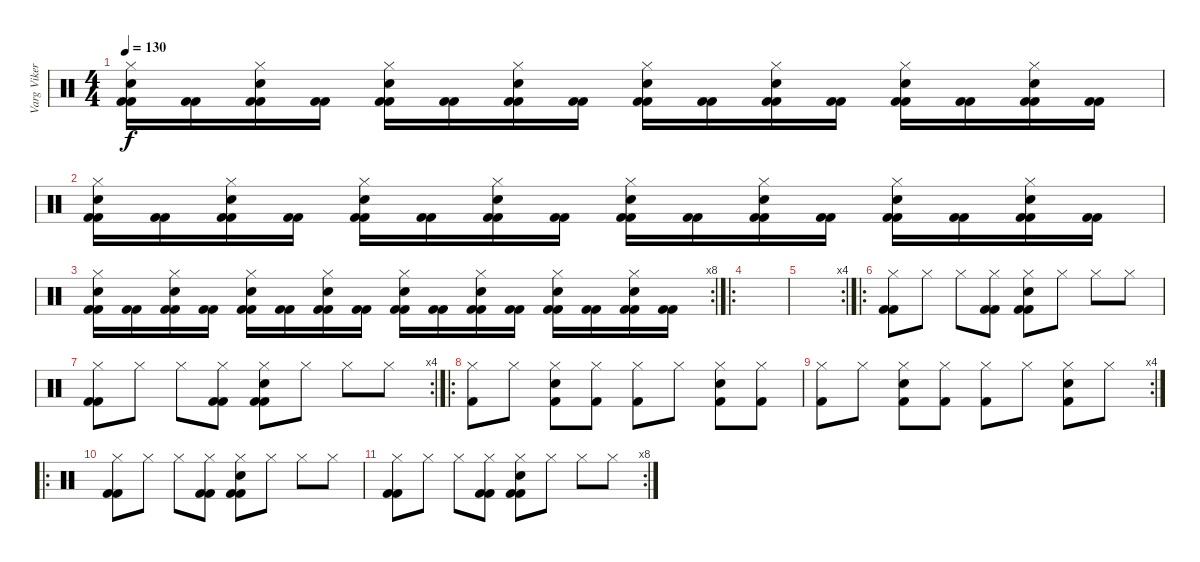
\track ("Varg Vikernes (Drums)" "Varg Viker") {instrument percussion}
\staff {score}
\articulation defaults
\ts (4 4)
\tempo 130
\clef neutral
\ks c
("Kick (hit) 2" "Kick (hit) 2" "Electric Snare (hit)" "Hi-Hat (closed)").16{dy f} ("Kick (hit) 2" "Kick (hit) 2").16 ("Kick (hit) 2" "Kick (hit) 2" "Electric Snare (hit)" "Hi-Hat (closed)").16 ("Kick (hit) 2" "Kick (hit) 2").16 ("Kick (hit) 2" "Kick (hit) 2" "Electric Snare (hit)" "Hi-Hat (closed)").16 ("Kick (hit) 2" "Kick (hit) 2").16 ("Kick (hit) 2" "Kick (hit) 2" "Electric Snare (hit)" "Hi-Hat (closed)").16 ("Kick (hit) 2" "Kick (hit) 2").16 ("Kick (hit) 2" "Kick (hit) 2" "Electric Snare (hit)" "Hi-Hat (closed)").16 ("Kick (hit) 2" "Kick (hit) 2").16 ("Kick (hit) 2" "Kick (hit) 2" "Electric Snare (hit)" "Hi-Hat (closed)").16 ("Kick (hit) 2" "Kick (hit) 2").16 ("Kick (hit) 2" "Kick (hit) 2" "Electric Snare (hit)" "Hi-Hat (closed)").16 ("Kick (hit) 2" "Kick (hit) 2").16 ("Kick (hit) 2" "Kick (hit) 2" "Electric Snare (hit)" "Hi-Hat (closed)").16 ("Kick (hit) 2" "Kick (hit) 2").16 |
("Kick (hit) 2" "Kick (hit) 2" "Electric Snare (hit)" "Hi-Hat (closed)").16 ("Kick (hit) 2" "Kick (hit) 2").16 ("Kick (hit) 2" "Kick (hit) 2" "Electric Snare (hit)" "Hi-Hat (closed)").16 ("Kick (hit) 2" "Kick (hit) 2").16 ("Kick (hit) 2" "Kick (hit) 2" "Electric Snare (hit)" "Hi-Hat (closed)").16 ("Kick (hit) 2" "Kick (hit) 2").16 ("Kick (hit) 2" "Kick (hit) 2" "Electric Snare (hit)" "Hi-Hat (closed)").16 ("Kick (hit) 2" "Kick (hit) 2").16 ("Kick (hit) 2" "Kick (hit) 2" "Electric Snare (hit)" "Hi-Hat (closed)").16 ("Kick (hit) 2" "Kick (hit) 2").16 ("Kick (hit) 2" "Kick (hit) 2" "Electric Snare (hit)" "Hi-Hat (closed)").16 ("Kick (hit) 2" "Kick (hit) 2").16 ("Kick (hit) 2" "Kick (hit) 2" "Electric Snare (hit)" "Hi-Hat (closed)").16 ("Kick (hit) 2" "Kick (hit) 2").16 ("Kick (hit) 2" "Kick (hit) 2" "Electric Snare (hit)" "Hi-Hat (closed)").16 ("Kick (hit) 2" "Kick (hit) 2").16 |
\rc 8
("Kick (hit) 2" "Kick (hit) 2" "Electric Snare (hit)" "Hi-Hat (closed)").16 ("Kick (hit) 2" "Kick (hit) 2").16 ("Kick (hit) 2" "Kick (hit) 2" "Electric Snare (hit)" "Hi-Hat (closed)").16 ("Kick (hit) 2" "Kick (hit) 2").16 ("Kick (hit) 2" "Kick (hit) 2" "Electric Snare (hit)" "Hi-Hat (closed)").16 ("Kick (hit) 2" "Kick (hit) 2").16 ("Kick (hit) 2" "Kick (hit) 2" "Electric Snare (hit)" "Hi-Hat (closed)").16 ("Kick (hit) 2" "Kick (hit) 2").16 ("Kick (hit) 2" "Kick (hit) 2" "Electric Snare (hit)" "Hi-Hat (closed)").16 ("Kick (hit) 2" "Kick (hit) 2").16 ("Kick (hit) 2" "Kick (hit) 2" "Electric Snare (hit)" "Hi-Hat (closed)").16 ("Kick (hit) 2" "Kick (hit) 2").16 ("Kick (hit) 2" "Kick (hit) 2" "Electric Snare (hit)" "Hi-Hat (closed)").16 ("Kick (hit) 2" "Kick (hit) 2").16 ("Kick (hit) 2" "Kick (hit) 2" "Electric Snare (hit)" "Hi-Hat (closed)").16 ("Kick (hit) 2" "Kick (hit) 2").16 |
\ro
|
\rc 4
|
\ro
("Hi-Hat (closed)" "Kick (hit) 2" "Kick (hit) 2").8 "Hi-Hat (closed)".8 "Hi-Hat (closed)".8 ("Hi-Hat (closed)" "Kick (hit) 2" "Kick (hit) 2").8 ("Hi-Hat (closed)" "Electric Snare (hit)" "Kick (hit) 2" "Kick (hit) 2").8 "Hi-Hat (closed)".8 "Hi-Hat (closed)".8 "Hi-Hat (closed)".8 |
\rc 4
("Hi-Hat (closed)" "Kick (hit) 2" "Kick (hit) 2").8 "Hi-Hat (closed)".8 "Hi-Hat (closed)".8 ("Hi-Hat (closed)" "Kick (hit) 2" "Kick (hit) 2").8 ("Hi-Hat (closed)" "Electric Snare (hit)" "Kick (hit) 2" "Kick (hit) 2").8 "Hi-Hat (closed)".8 "Hi-Hat (closed)".8 "Hi-Hat (closed)".8 |
\ro
("Hi-Hat (closed)" "Kick (hit) 2").8 "Hi-Hat (closed)".8 ("Hi-Hat (closed)" "Electric Snare (hit)" "Kick (hit) 2").8 ("Hi-Hat (closed)" "Kick (hit) 2").8 ("Hi-Hat (closed)" "Kick (hit) 2").8 "Hi-Hat (closed)".8 ("Hi-Hat (closed)" "Electric Snare (hit)" "Kick (hit) 2").8 ("Hi-Hat (closed)" "Kick (hit) 2").8 |
\rc 4
("Hi-Hat (closed)" "Kick (hit) 2").8 "Hi-Hat (closed)".8 ("Hi-Hat (closed)" "Electric Snare (hit)" "Kick (hit) 2").8 ("Hi-Hat (closed)" "Kick (hit) 2").8 ("Hi-Hat (closed)" "Kick (hit) 2").8 "Hi-Hat (closed)".8 ("Hi-Hat (closed)" "Electric Snare (hit)" "Kick (hit) 2").8 "Hi-Hat (closed)".8 |
\ro
("Hi-Hat (closed)" "Kick (hit) 2" "Kick (hit) 2").8 "Hi-Hat (closed)".8 "Hi-Hat (closed)".8 ("Hi-Hat (closed)" "Kick (hit) 2" "Kick (hit) 2").8 ("Hi-Hat (closed)" "Electric Snare (hit)" "Kick (hit) 2" "Kick (hit) 2").8 "Hi-Hat (closed)".8 "Hi-Hat (closed)".8 "Hi-Hat (closed)".8 |
\rc 8
("Hi-Hat (closed)" "Kick (hit) 2" "Kick (hit) 2").8 "Hi-Hat (closed)".8 "Hi-Hat (closed)".8 ("Hi-Hat (closed)" "Kick (hit) 2" "Kick (hit) 2").8 ("Hi-Hat (closed)" "Electric Snare (hit)" "Kick (hit) 2" "Kick (hit) 2").8 "Hi-Hat (closed)".8 "Hi-Hat (closed)".8 "Hi-Hat (closed)".8
